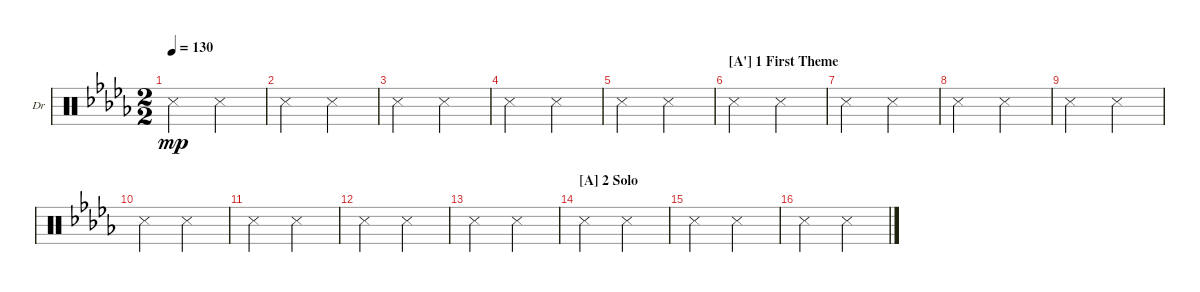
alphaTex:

\defaultSystemsLayout 4
\bracketExtendMode nobrackets
\firstSystemTrackNameOrientation horizontal
\otherSystemsTrackNameOrientation horizontal
\chordDiagramsInScore
\track ("Drums" "Dr") {instrument percussion}
\staff {score}
\articulation defaults
\ts (2 2)
\tempo 130
\clef neutral
\scale
0.333333
\ks db "Snare (side stick) 3".2{dy mp} "Snare (side stick) 3".2
|
\scale
0.333333 "Snare (side stick) 3".2 "Snare (side stick) 3".2 |
\scale
0.333333 "Snare (side stick) 3".2 "Snare (side stick) 3".2 |
\scale
0.333333 "Snare (side stick) 3".2 "Snare (side stick) 3".2 |
\scale
0.333333 "Snare (side stick) 3".2 "Snare (side stick) 3".2 |
\section ("A'" "1 First Theme")
\scale
0.333333 "Snare (side stick) 3".2 "Snare (side stick) 3".2 |
\scale
0.333333 "Snare (side stick) 3".2 "Snare (side stick) 3".2 |
\scale
0.333333 "Snare (side stick) 3".2 "Snare (side stick) 3".2 |
\scale
0.333333 "Snare (side stick) 3".2 "Snare (side stick) 3".2 |
\scale
0.333333 "Snare (side stick) 3".2 "Snare (side stick) 3".2 |
\scale
0.321839 "Snare (side stick) 3".2 "Snare (side stick) 3".2 |
\scale
0.321839 "Snare (side stick) 3".2 "Snare (side stick) 3".2 |
\scale
0.356322 "Snare (side stick) 3".2 "Snare (side stick) 3".2 |
\section ("A" "2 Solo")
"Snare (side stick) 3".2 "Snare (side stick) 3".2 |
"Snare (side stick) 3".2 "Snare (side stick) 3".2 |
"Snare (side stick) 3".2 "Snare (side stick) 3".2
